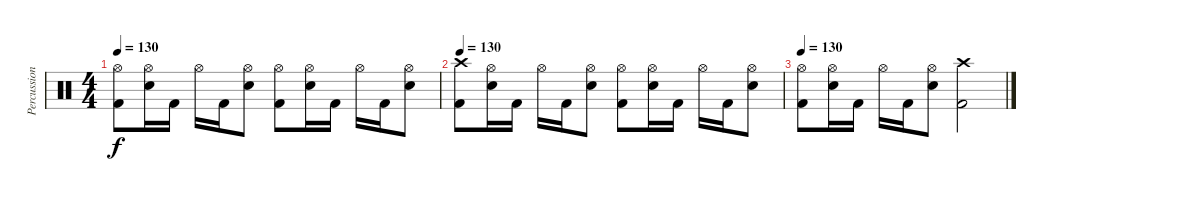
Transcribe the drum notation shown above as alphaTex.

\track ("Percussions" "Percussion") {instrument percussion}
\staff {score}
\articulation defaults
\ts (4 4)
\tempo 130
\clef neutral
\ks c
("Hi-Hat (open)" "Kick (hit) 2").8{dy f} ("Hi-Hat (open)" "Snare (hit) 2").16 "Kick (hit) 2".16 "Hi-Hat (open)".16 "Kick (hit) 2".16 ("Hi-Hat (open)" "Snare (hit) 2").8 ("Hi-Hat (open)" "Kick (hit) 2").8 ("Hi-Hat (open)" "Snare (hit) 2").16 "Kick (hit) 2".16 "Hi-Hat (open)".16 "Kick (hit) 2".16 ("Hi-Hat (open)" "Snare (hit) 2").8 |
\tempo 130
("Crash high (hit)" "Kick (hit) 2").8 ("Hi-Hat (open)" "Snare (hit) 2").16 "Kick (hit) 2".16 "Hi-Hat (open)".16 "Kick (hit) 2".16 ("Hi-Hat (open)" "Snare (hit) 2").8 ("Hi-Hat (open)" "Kick (hit) 2").8 ("Hi-Hat (open)" "Snare (hit) 2").16 "Kick (hit) 2".16 "Hi-Hat (open)".16 "Kick (hit) 2".16 ("Hi-Hat (open)" "Snare (hit) 2").8 |
\tempo 130
("Hi-Hat (open)" "Kick (hit) 2").8 ("Hi-Hat (open)" "Snare (hit) 2").16 "Kick (hit) 2".16 "Hi-Hat (open)".16 "Kick (hit) 2".16 ("Hi-Hat (open)" "Snare (hit) 2").8 ("Crash high (hit)" "Kick (hit) 2").2
